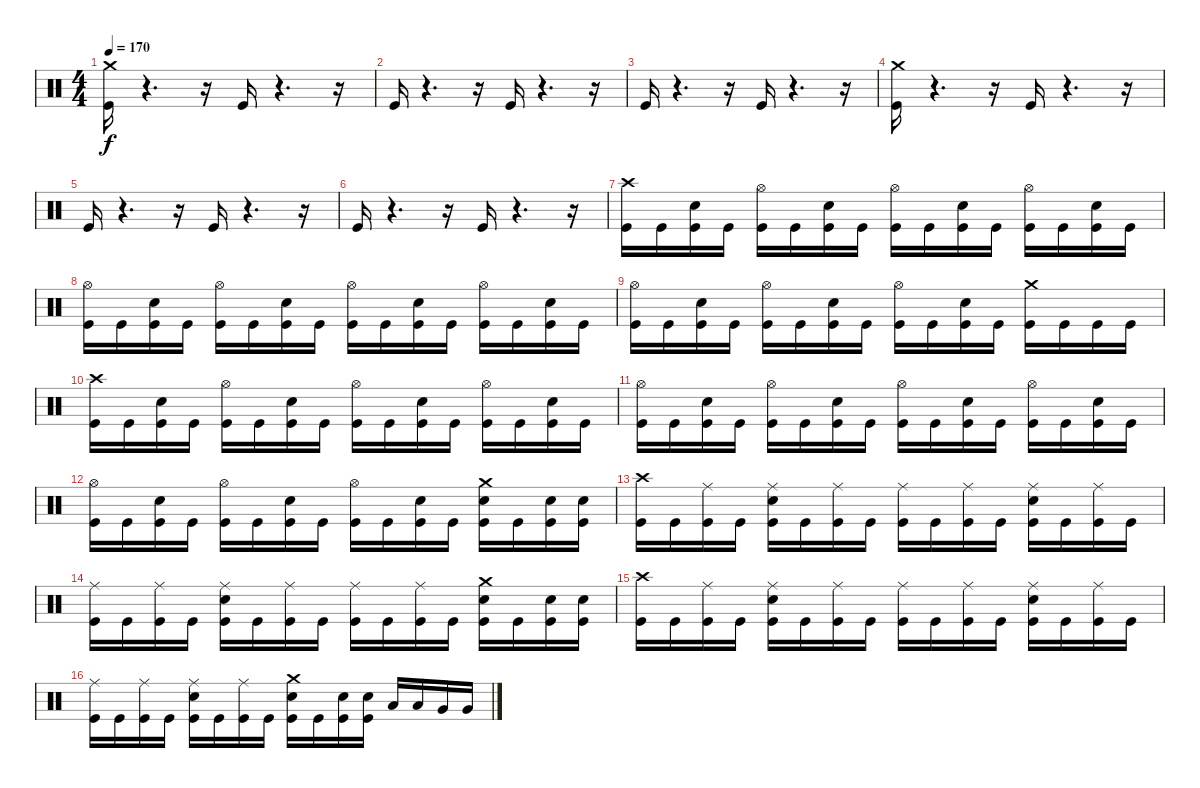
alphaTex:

\track "" {instrument percussion}
\staff {score}
\articulation defaults
\ts (4 4)
\tempo 170
\clef neutral
\ks c
("Crash medium (hit)" "Kick (hit)").16{dy f} r.4{d} r.16 "Kick (hit)".16 r.4{d} r.16 |
"Kick (hit)".16 r.4{d} r.16 "Kick (hit)".16 r.4{d} r.16 |
"Kick (hit)".16 r.4{d} r.16 "Kick (hit)".16 r.4{d} r.16 |
("Kick (hit)" "Crash medium (hit)").16 r.4{d} r.16 "Kick (hit)".16 r.4{d} r.16 |
"Kick (hit)".16 r.4{d} r.16 "Kick (hit)".16 r.4{d} r.16 |
"Kick (hit)".16 r.4{d} r.16 "Kick (hit)".16 r.4{d} r.16 |
("Kick (hit)" "Crash high (hit)").16 "Kick (hit)".16 ("Snare (hit) 2" "Kick (hit)").16 "Kick (hit)".16 ("Hi-Hat (open)" "Kick (hit)").16 "Kick (hit)".16 ("Snare (hit) 2" "Kick (hit)").16 "Kick (hit)".16 ("Hi-Hat (open)" "Kick (hit)").16 "Kick (hit)".16 ("Snare (hit) 2" "Kick (hit)").16 "Kick (hit)".16 ("Hi-Hat (open)" "Kick (hit)").16 "Kick (hit)".16 ("Snare (hit) 2" "Kick (hit)").16 "Kick (hit)".16 |
("Hi-Hat (open)" "Kick (hit)").16 "Kick (hit)".16 ("Snare (hit) 2" "Kick (hit)").16 "Kick (hit)".16 ("Hi-Hat (open)" "Kick (hit)").16 "Kick (hit)".16 ("Snare (hit) 2" "Kick (hit)").16 "Kick (hit)".16 ("Hi-Hat (open)" "Kick (hit)").16 "Kick (hit)".16 ("Kick (hit)" "Snare (hit) 2").16 "Kick (hit)".16 ("Hi-Hat (open)" "Kick (hit)").16 "Kick (hit)".16 ("Snare (hit) 2" "Kick (hit)").16 "Kick (hit)".16 |
("Kick (hit)" "Hi-Hat (open)").16 "Kick (hit)".16 ("Kick (hit)" "Snare (hit) 2").16 "Kick (hit)".16 ("Kick (hit)" "Hi-Hat (open)").16 "Kick (hit)".16 ("Kick (hit)" "Snare (hit) 2").16 "Kick (hit)".16 ("Kick (hit)" "Hi-Hat (open)").16 "Kick (hit)".16 ("Kick (hit)" "Snare (hit) 2").16 "Kick (hit)".16 ("Kick (hit)" "Crash medium (hit)").16 "Kick (hit)".16 "Kick (hit)".16 "Kick (hit)".16 |
("Kick (hit)" "Crash high (hit)").16 "Kick (hit)".16 ("Snare (hit) 2" "Kick (hit)").16 "Kick (hit)".16 ("Hi-Hat (open)" "Kick (hit)").16 "Kick (hit)".16 ("Snare (hit) 2" "Kick (hit)").16 "Kick (hit)".16 ("Hi-Hat (open)" "Kick (hit)").16 "Kick (hit)".16 ("Snare (hit) 2" "Kick (hit)").16 "Kick (hit)".16 ("Hi-Hat (open)" "Kick (hit)").16 "Kick (hit)".16 ("Snare (hit) 2" "Kick (hit)").16 "Kick (hit)".16 |
("Hi-Hat (open)" "Kick (hit)").16 "Kick (hit)".16 ("Snare (hit) 2" "Kick (hit)").16 "Kick (hit)".16 ("Hi-Hat (open)" "Kick (hit)").16 "Kick (hit)".16 ("Snare (hit) 2" "Kick (hit)").16 "Kick (hit)".16 ("Hi-Hat (open)" "Kick (hit)").16 "Kick (hit)".16 ("Kick (hit)" "Snare (hit) 2").16 "Kick (hit)".16 ("Hi-Hat (open)" "Kick (hit)").16 "Kick (hit)".16 ("Snare (hit) 2" "Kick (hit)").16 "Kick (hit)".16 |
("Kick (hit)" "Hi-Hat (open)").16 "Kick (hit)".16 ("Kick (hit)" "Snare (hit) 2").16 "Kick (hit)".16 ("Kick (hit)" "Hi-Hat (open)").16 "Kick (hit)".16 ("Kick (hit)" "Snare (hit) 2").16 "Kick (hit)".16 ("Kick (hit)" "Hi-Hat (open)").16 "Kick (hit)".16 ("Kick (hit)" "Snare (hit) 2").16 "Kick (hit)".16 ("Snare (hit) 2" "Kick (hit)" "Crash medium (hit)").16 "Kick (hit)".16 ("Snare (hit) 2" "Kick (hit)").16 ("Snare (hit) 2" "Kick (hit)").16 |
("Crash high (hit)" "Kick (hit)").16 "Kick (hit)".16 ("Ride (middle)" "Kick (hit)").16 "Kick (hit)".16 ("Snare (hit) 2" "Ride (middle)" "Kick (hit)").16 "Kick (hit)".16 ("Ride (middle)" "Kick (hit)").16 "Kick (hit)".16 ("Ride (middle)" "Kick (hit)").16 "Kick (hit)".16 ("Ride (middle)" "Kick (hit)").16 "Kick (hit)".16 ("Snare (hit) 2" "Ride (middle)" "Kick (hit)").16 "Kick (hit)".16 ("Ride (middle)" "Kick (hit)").16 "Kick (hit)".16 |
("Ride (middle)" "Kick (hit)").16 "Kick (hit)".16 ("Ride (middle)" "Kick (hit)").16 "Kick (hit)".16 ("Snare (hit) 2" "Ride (middle)" "Kick (hit)").16 "Kick (hit)".16 ("Ride (middle)" "Kick (hit)").16 "Kick (hit)".16 ("Ride (middle)" "Kick (hit)").16 "Kick (hit)".16 ("Ride (middle)" "Kick (hit)").16 "Kick (hit)".16 ("Snare (hit) 2" "Crash medium (hit)" "Kick (hit)").16 "Kick (hit)".16 ("Snare (hit) 2" "Kick (hit)").16 ("Snare (hit) 2" "Kick (hit)").16 |
("Crash high (hit)" "Kick (hit)").16 "Kick (hit)".16 ("Ride (middle)" "Kick (hit)").16 "Kick (hit)".16 ("Snare (hit) 2" "Ride (middle)" "Kick (hit)").16 "Kick (hit)".16 ("Ride (middle)" "Kick (hit)").16 "Kick (hit)".16 ("Ride (middle)" "Kick (hit)").16 "Kick (hit)".16 ("Ride (middle)" "Kick (hit)").16 "Kick (hit)".16 ("Snare (hit) 2" "Ride (middle)" "Kick (hit)").16 "Kick (hit)".16 ("Ride (middle)" "Kick (hit)").16 "Kick (hit)".16 |
("Ride (middle)" "Kick (hit)").16 "Kick (hit)".16 ("Ride (middle)" "Kick (hit)").16 "Kick (hit)".16 ("Snare (hit) 2" "Ride (middle)" "Kick (hit)").16 "Kick (hit)".16 ("Ride (middle)" "Kick (hit)").16 "Kick (hit)".16 ("Snare (hit) 2" "Crash medium (hit)" "Kick (hit)").16 "Kick (hit)".16 ("Snare (hit) 2" "Kick (hit)").16 ("Snare (hit) 2" "Kick (hit)").16 "Low Tom (hit)".16 "Low Tom (hit)".16 "Very Low Tom (hit)".16 "Very Low Tom (hit)".16
